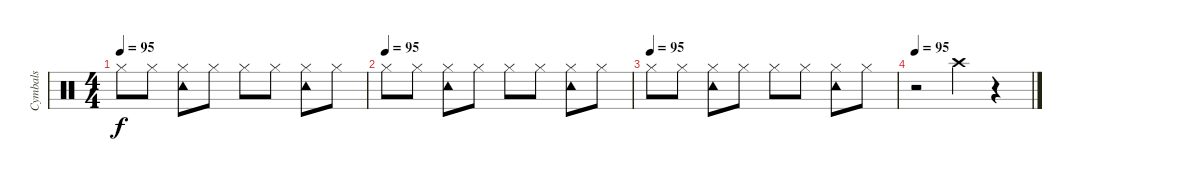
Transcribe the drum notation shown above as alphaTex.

\track ("Cymbals" "Cymbals") {instrument percussion}
\staff {score}
\articulation defaults
\ts (4 4)
\tempo 95
\clef neutral
\ks c "Hi-Hat (closed)".8{dy f} "Hi-Hat (closed)".8
("Tambourine (hit)" "Hi-Hat (closed)").8 "Hi-Hat (closed)".8 "Hi-Hat (closed)".8 "Hi-Hat (closed)".8 ("Tambourine (hit)" "Hi-Hat (closed)").8 "Hi-Hat (closed)".8 |
\tempo (95)
"Hi-Hat (closed)".8 "Hi-Hat (closed)".8 ("Tambourine (hit)" "Hi-Hat (closed)").8 "Hi-Hat (closed)".8 "Hi-Hat (closed)".8 "Hi-Hat (closed)".8 ("Tambourine (hit)" "Hi-Hat (closed)").8 "Hi-Hat (closed)".8 |
\tempo (95)
"Hi-Hat (closed)".8 "Hi-Hat (closed)".8 ("Tambourine (hit)" "Hi-Hat (closed)").8 "Hi-Hat (closed)".8 "Hi-Hat (closed)".8 "Hi-Hat (closed)".8 ("Tambourine (hit)" "Hi-Hat (closed)").8 "Hi-Hat (closed)".8 |
\tempo 95
r.2 "Crash high (hit)".4 r.4
